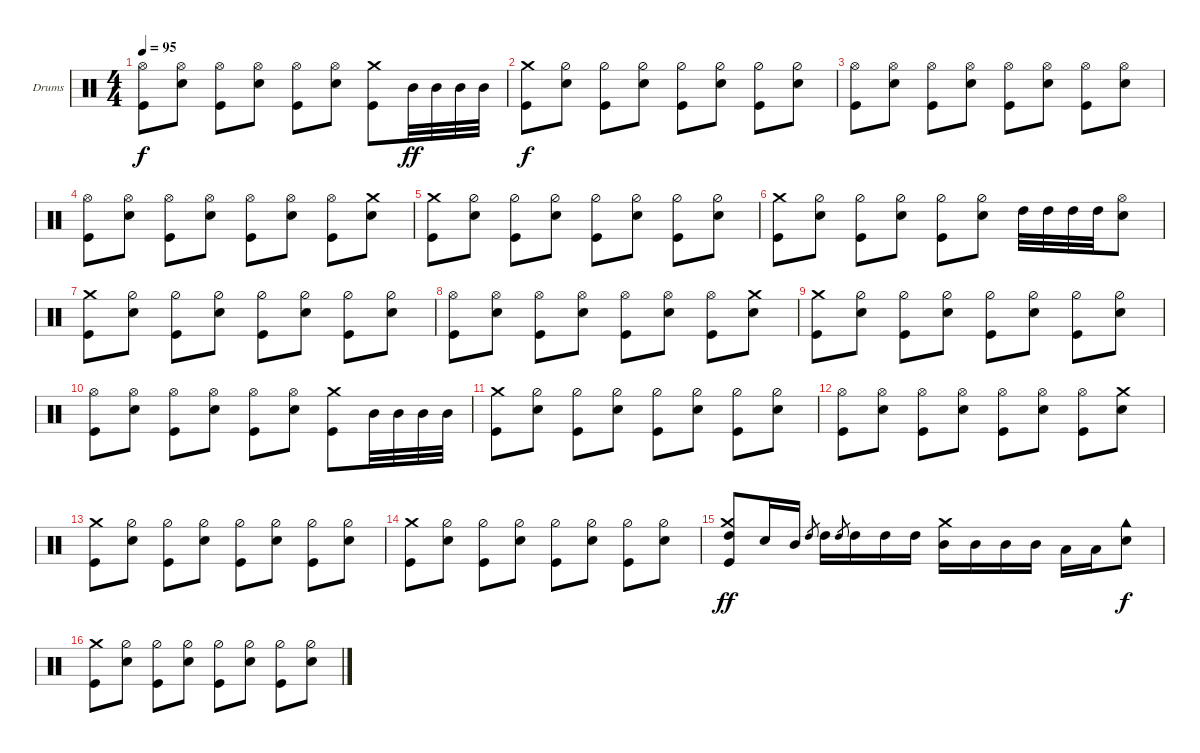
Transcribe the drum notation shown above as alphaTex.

\defaultSystemsLayout 4
\bracketExtendMode groupsimilarinstruments
\firstSystemTrackNameOrientation horizontal
\otherSystemsTrackNameOrientation horizontal
\track ("Drumkit" "Drums") {instrument percussion}
\staff {score}
\articulation defaults
\ts (4 4)
\tempo 95
\clef neutral
\scale
0.333333
\ks c
("Kick (hit)" "Hi-Hat (open)").8{dy f} ("Snare (hit) 2" "Hi-Hat (open)").8 ("Kick (hit)" "Hi-Hat (open)").8 ("Snare (hit) 2" "Hi-Hat (open)").8 ("Kick (hit)" "Hi-Hat (open)").8 ("Snare (hit) 2" "Hi-Hat (open)").8 ("Kick (hit)" "Crash medium (hit)").8 "Mid Tom (hit)".32{dy ff} "Mid Tom (hit)".32 "Mid Tom (hit)".32 "Mid Tom (hit)".32 |
\scale
0.333333 ("Kick (hit)" "Crash medium (hit)").8{dy f} ("Snare (hit) 2" "Hi-Hat (half)").8 ("Kick (hit)" "Hi-Hat (half)").8 ("Snare (hit) 2" "Hi-Hat (half)").8 ("Kick (hit)" "Hi-Hat (half)").8 ("Snare (hit) 2" "Hi-Hat (half)").8 ("Kick (hit)" "Hi-Hat (half)").8 ("Snare (hit) 2" "Hi-Hat (half)").8 |
\scale
0.333333 ("Kick (hit)" "Hi-Hat (open)").8 ("Snare (hit) 2" "Hi-Hat (open)").8 ("Kick (hit)" "Hi-Hat (open)").8 ("Snare (hit) 2" "Hi-Hat (open)").8 ("Kick (hit)" "Hi-Hat (open)").8 ("Snare (hit) 2" "Hi-Hat (open)").8 ("Kick (hit)" "Hi-Hat (open)").8 ("Snare (hit) 2" "Hi-Hat (open)").8 |
\scale
0.333333 ("Kick (hit)" "Hi-Hat (open)").8 ("Snare (hit) 2" "Hi-Hat (open)").8 ("Kick (hit)" "Hi-Hat (open)").8 ("Snare (hit) 2" "Hi-Hat (open)").8 ("Kick (hit)" "Hi-Hat (open)").8 ("Snare (hit) 2" "Hi-Hat (open)").8 ("Kick (hit)" "Hi-Hat (open)").8 ("Crash medium (hit)" "Snare (hit) 2").8 |
\scale
0.333333 ("Kick (hit)" "Crash medium (hit)").8 ("Snare (hit) 2" "Hi-Hat (half)").8 ("Kick (hit)" "Hi-Hat (half)").8 ("Snare (hit) 2" "Hi-Hat (half)").8 ("Kick (hit)" "Hi-Hat (half)").8 ("Snare (hit) 2" "Hi-Hat (half)").8 ("Kick (hit)" "Hi-Hat (half)").8 ("Snare (hit) 2" "Hi-Hat (half)").8 |
\scale
0.333333 ("Kick (hit)" "Crash medium (hit)").8 ("Snare (hit) 2" "Hi-Hat (half)").8 ("Kick (hit)" "Hi-Hat (half)").8 ("Snare (hit) 2" "Hi-Hat (half)").8 ("Kick (hit)" "Hi-Hat (half)").8 ("Snare (hit) 2" "Hi-Hat (half)").8 "High Tom (hit)".32 "High Tom (hit)".32 "High Tom (hit)".32 "High Tom (hit)".32 ("Snare (hit) 2" "Hi-Hat (open)").8 |
\scale
0.333333 ("Kick (hit)" "Crash medium (hit)").8 ("Snare (hit) 2" "Hi-Hat (half)").8 ("Kick (hit)" "Hi-Hat (half)").8 ("Snare (hit) 2" "Hi-Hat (half)").8 ("Kick (hit)" "Hi-Hat (half)").8 ("Snare (hit) 2" "Hi-Hat (half)").8 ("Kick (hit)" "Hi-Hat (half)").8 ("Snare (hit) 2" "Hi-Hat (half)").8 |
\scale
0.333333 ("Kick (hit)" "Hi-Hat (open)").8 ("Snare (hit) 2" "Hi-Hat (open)").8 ("Kick (hit)" "Hi-Hat (open)").8 ("Snare (hit) 2" "Hi-Hat (open)").8 ("Kick (hit)" "Hi-Hat (open)").8 ("Snare (hit) 2" "Hi-Hat (open)").8 ("Kick (hit)" "Hi-Hat (open)").8 ("Crash medium (hit)" "Snare (hit) 2").8 |
\scale
0.333333 ("Kick (hit)" "Crash medium (hit)").8 ("Snare (hit) 2" "Hi-Hat (half)").8 ("Kick (hit)" "Hi-Hat (half)").8 ("Snare (hit) 2" "Hi-Hat (half)").8 ("Kick (hit)" "Hi-Hat (half)").8 ("Snare (hit) 2" "Hi-Hat (half)").8 ("Kick (hit)" "Hi-Hat (half)").8 ("Snare (hit) 2" "Hi-Hat (half)").8 |
\scale
0.333333 ("Kick (hit)" "Hi-Hat (open)").8 ("Snare (hit) 2" "Hi-Hat (open)").8 ("Kick (hit)" "Hi-Hat (open)").8 ("Snare (hit) 2" "Hi-Hat (open)").8 ("Kick (hit)" "Hi-Hat (open)").8 ("Snare (hit) 2" "Hi-Hat (open)").8 ("Kick (hit)" "Crash medium (hit)").8 "Mid Tom (hit)".32 "Mid Tom (hit)".32 "Mid Tom (hit)".32 "Mid Tom (hit)".32 |
\scale
0.333333 ("Kick (hit)" "Crash medium (hit)").8 ("Snare (hit) 2" "Hi-Hat (half)").8 ("Kick (hit)" "Hi-Hat (half)").8 ("Snare (hit) 2" "Hi-Hat (half)").8 ("Kick (hit)" "Hi-Hat (half)").8 ("Snare (hit) 2" "Hi-Hat (half)").8 ("Kick (hit)" "Hi-Hat (half)").8 ("Snare (hit) 2" "Hi-Hat (half)").8 |
\scale
0.333333 ("Kick (hit)" "Hi-Hat (open)").8 ("Snare (hit) 2" "Hi-Hat (open)").8 ("Kick (hit)" "Hi-Hat (open)").8 ("Snare (hit) 2" "Hi-Hat (open)").8 ("Kick (hit)" "Hi-Hat (open)").8 ("Snare (hit) 2" "Hi-Hat (open)").8 ("Kick (hit)" "Hi-Hat (open)").8 ("Crash medium (hit)" "Snare (hit) 2").8 |
\scale
0.333333 ("Kick (hit)" "Crash medium (hit)").8 ("Snare (hit) 2" "Hi-Hat (half)").8 ("Kick (hit)" "Hi-Hat (half)").8 ("Snare (hit) 2" "Hi-Hat (half)").8 ("Kick (hit)" "Hi-Hat (half)").8 ("Snare (hit) 2" "Hi-Hat (half)").8 ("Kick (hit)" "Hi-Hat (half)").8 ("Snare (hit) 2" "Hi-Hat (half)").8 |
\scale
0.333333 ("Kick (hit)" "Crash medium (hit)").8 ("Snare (hit) 2" "Hi-Hat (half)").8 ("Kick (hit)" "Hi-Hat (half)").8 ("Snare (hit) 2" "Hi-Hat (half)").8 ("Kick (hit)" "Hi-Hat (half)").8 ("Snare (hit) 2" "Hi-Hat (half)").8 ("Kick (hit)" "Hi-Hat (half)").8 ("Snare (hit) 2" "Hi-Hat (half)").8 |
\scale
0.333333 ("Kick (hit)" "Crash medium (hit)" "High Tom (hit)").8{dy ff} "Snare (hit) 2".16 "Mid Tom (hit)".16 "High Tom (hit)".8{gr} "High Tom (hit)".16 "High Tom (hit)".8{gr} "High Tom (hit)".16 "High Tom (hit)".16 "High Tom (hit)".16 ("Mid Tom (hit)" "Crash medium (hit)").16 "Mid Tom (hit)".16 "Mid Tom (hit)".16 "Mid Tom (hit)".16 "Low Tom (hit)".16 "Low Tom (hit)".16 ("Snare (hit) 2" "Cowbell high (hit)").8{dy f} |
\scale
0.333333 ("Kick (hit)" "Crash medium (hit)").8 ("Snare (hit) 2" "Hi-Hat (half)").8 ("Kick (hit)" "Hi-Hat (half)").8 ("Snare (hit) 2" "Hi-Hat (half)").8 ("Kick (hit)" "Hi-Hat (half)").8 ("Snare (hit) 2" "Hi-Hat (half)").8 ("Kick (hit)" "Hi-Hat (half)").8 ("Snare (hit) 2" "Hi-Hat (half)").8
